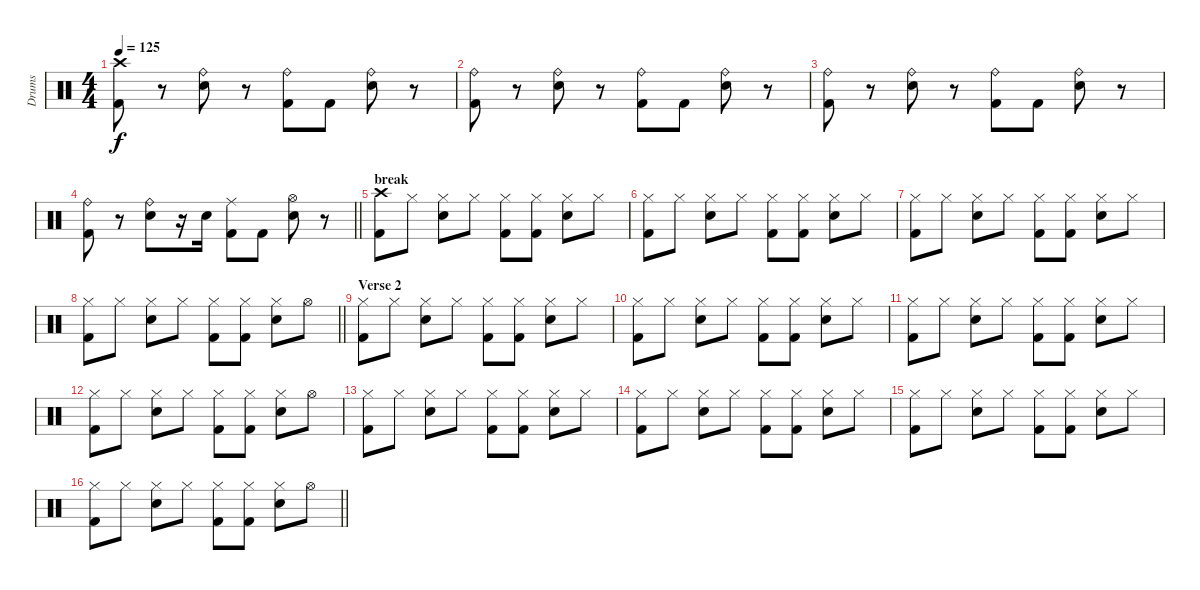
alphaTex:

\track ("Drums" "Drums") {instrument percussion}
\staff {score}
\articulation defaults
\ts (4 4)
\tempo 125
\clef neutral
\ks c
("Crash high (hit)" "Kick (hit) 2").8{dy f} r.8 ("Ride (bell)" "Snare (hit) 2").8 r.8 ("Ride (bell)" "Kick (hit) 2").8 "Kick (hit) 2".8 ("Ride (bell)" "Snare (hit) 2").8 r.8 |
("Ride (bell)" "Kick (hit) 2").8 r.8 ("Ride (bell)" "Snare (hit) 2").8 r.8 ("Ride (bell)" "Kick (hit) 2").8 "Kick (hit) 2".8 ("Ride (bell)" "Snare (hit) 2").8 r.8 |
("Ride (bell)" "Kick (hit) 2").8 r.8 ("Ride (bell)" "Snare (hit) 2").8 r.8 ("Ride (bell)" "Kick (hit) 2").8 "Kick (hit) 2".8 ("Ride (bell)" "Snare (hit) 2").8 r.8 |
\barLineRight lightlight
("Ride (bell)" "Kick (hit) 2").8 r.8 ("Ride (bell)" "Snare (hit) 2").8 r.16 "Snare (hit) 2".16 ("Ride (middle)" "Kick (hit) 2").8 "Kick (hit) 2".8 ("Hi-Hat (open)" "Snare (hit) 2").8 r.8 |
\section ("" "break")
("Crash high (hit)" "Kick (hit) 2").8 "Hi-Hat (closed)".8 ("Hi-Hat (closed)" "Snare (hit) 2").8 "Hi-Hat (closed)".8 ("Hi-Hat (closed)" "Kick (hit) 2").8 ("Hi-Hat (closed)" "Kick (hit) 2").8 ("Hi-Hat (closed)" "Snare (hit) 2").8 "Hi-Hat (closed)".8 |
("Hi-Hat (closed)" "Kick (hit) 2").8 "Hi-Hat (closed)".8 ("Hi-Hat (closed)" "Snare (hit) 2").8 "Hi-Hat (closed)".8 ("Hi-Hat (closed)" "Kick (hit) 2").8 ("Hi-Hat (closed)" "Kick (hit) 2").8 ("Hi-Hat (closed)" "Snare (hit) 2").8 "Hi-Hat (closed)".8 |
("Hi-Hat (closed)" "Kick (hit) 2").8 "Hi-Hat (closed)".8 ("Hi-Hat (closed)" "Snare (hit) 2").8 "Hi-Hat (closed)".8 ("Hi-Hat (closed)" "Kick (hit) 2").8 ("Hi-Hat (closed)" "Kick (hit) 2").8 ("Hi-Hat (closed)" "Snare (hit) 2").8 "Hi-Hat (closed)".8 |
\barLineRight lightlight
("Hi-Hat (closed)" "Kick (hit) 2").8 "Hi-Hat (closed)".8 ("Hi-Hat (closed)" "Snare (hit) 2").8 "Hi-Hat (closed)".8 ("Hi-Hat (closed)" "Kick (hit) 2").8 ("Hi-Hat (closed)" "Kick (hit) 2").8 ("Hi-Hat (closed)" "Snare (hit) 2").8 "Hi-Hat (open)".8 |
\section ("" "Verse 2")
("Hi-Hat (closed)" "Kick (hit) 2").8 "Hi-Hat (closed)".8 ("Hi-Hat (closed)" "Snare (hit) 2").8 "Hi-Hat (closed)".8 ("Hi-Hat (closed)" "Kick (hit) 2").8 ("Hi-Hat (closed)" "Kick (hit) 2").8 ("Hi-Hat (closed)" "Snare (hit) 2").8 "Hi-Hat (closed)".8 |
("Hi-Hat (closed)" "Kick (hit) 2").8 "Hi-Hat (closed)".8 ("Hi-Hat (closed)" "Snare (hit) 2").8 "Hi-Hat (closed)".8 ("Hi-Hat (closed)" "Kick (hit) 2").8 ("Hi-Hat (closed)" "Kick (hit) 2").8 ("Hi-Hat (closed)" "Snare (hit) 2").8 "Hi-Hat (closed)".8 |
("Hi-Hat (closed)" "Kick (hit) 2").8 "Hi-Hat (closed)".8 ("Hi-Hat (closed)" "Snare (hit) 2").8 "Hi-Hat (closed)".8 ("Hi-Hat (closed)" "Kick (hit) 2").8 ("Hi-Hat (closed)" "Kick (hit) 2").8 ("Hi-Hat (closed)" "Snare (hit) 2").8 "Hi-Hat (closed)".8 |
("Hi-Hat (closed)" "Kick (hit) 2").8 "Hi-Hat (closed)".8 ("Hi-Hat (closed)" "Snare (hit) 2").8 "Hi-Hat (closed)".8 ("Hi-Hat (closed)" "Kick (hit) 2").8 ("Hi-Hat (closed)" "Kick (hit) 2").8 ("Hi-Hat (closed)" "Snare (hit) 2").8 "Hi-Hat (open)".8 |
("Hi-Hat (closed)" "Kick (hit) 2").8 "Hi-Hat (closed)".8 ("Hi-Hat (closed)" "Snare (hit) 2").8 "Hi-Hat (closed)".8 ("Hi-Hat (closed)" "Kick (hit) 2").8 ("Hi-Hat (closed)" "Kick (hit) 2").8 ("Hi-Hat (closed)" "Snare (hit) 2").8 "Hi-Hat (closed)".8 |
("Hi-Hat (closed)" "Kick (hit) 2").8 "Hi-Hat (closed)".8 ("Hi-Hat (closed)" "Snare (hit) 2").8 "Hi-Hat (closed)".8 ("Hi-Hat (closed)" "Kick (hit) 2").8 ("Hi-Hat (closed)" "Kick (hit) 2").8 ("Hi-Hat (closed)" "Snare (hit) 2").8 "Hi-Hat (closed)".8 |
("Hi-Hat (closed)" "Kick (hit) 2").8 "Hi-Hat (closed)".8 ("Hi-Hat (closed)" "Snare (hit) 2").8 "Hi-Hat (closed)".8 ("Hi-Hat (closed)" "Kick (hit) 2").8 ("Hi-Hat (closed)" "Kick (hit) 2").8 ("Hi-Hat (closed)" "Snare (hit) 2").8 "Hi-Hat (closed)".8 |
\barLineRight lightlight
("Hi-Hat (closed)" "Kick (hit) 2").8 "Hi-Hat (closed)".8 ("Hi-Hat (closed)" "Snare (hit) 2").8 "Hi-Hat (closed)".8 ("Hi-Hat (closed)" "Kick (hit) 2").8 ("Hi-Hat (closed)" "Kick (hit) 2").8 ("Hi-Hat (closed)" "Snare (hit) 2").8 "Hi-Hat (open)".8
